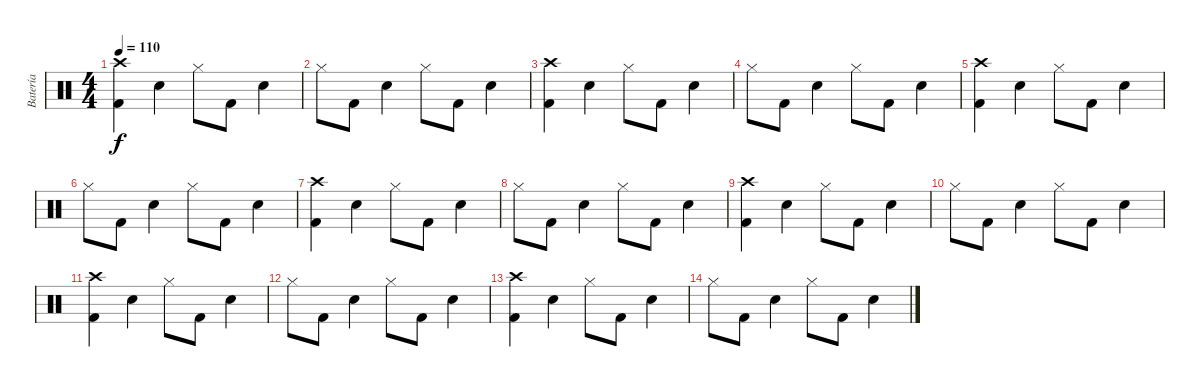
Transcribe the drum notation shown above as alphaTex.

\track ("Batería" "Batería") {instrument percussion}
\staff {score}
\articulation defaults
\ts (4 4)
\tempo 110
\clef neutral
\ks c
("Crash high (hit)" "Kick (hit) 2").4{dy f volume 11} "Electric Snare (hit)".4 "Hi-Hat (closed)".8 "Kick (hit) 2".8 "Electric Snare (hit)".4 |
"Hi-Hat (closed)".8 "Kick (hit) 2".8 "Electric Snare (hit)".4 "Hi-Hat (closed)".8 "Kick (hit) 2".8 "Electric Snare (hit)".4 |
("Crash high (hit)" "Kick (hit) 2").4{volume 11} "Electric Snare (hit)".4 "Hi-Hat (closed)".8 "Kick (hit) 2".8 "Electric Snare (hit)".4 |
"Hi-Hat (closed)".8 "Kick (hit) 2".8 "Electric Snare (hit)".4 "Hi-Hat (closed)".8 "Kick (hit) 2".8 "Electric Snare (hit)".4 |
("Crash high (hit)" "Kick (hit) 2").4{volume 11} "Electric Snare (hit)".4 "Hi-Hat (closed)".8 "Kick (hit) 2".8 "Electric Snare (hit)".4 |
"Hi-Hat (closed)".8 "Kick (hit) 2".8 "Electric Snare (hit)".4 "Hi-Hat (closed)".8 "Kick (hit) 2".8 "Electric Snare (hit)".4 |
("Crash high (hit)" "Kick (hit) 2").4{volume 11} "Electric Snare (hit)".4 "Hi-Hat (closed)".8 "Kick (hit) 2".8 "Electric Snare (hit)".4 |
"Hi-Hat (closed)".8 "Kick (hit) 2".8 "Electric Snare (hit)".4 "Hi-Hat (closed)".8 "Kick (hit) 2".8 "Electric Snare (hit)".4 |
("Crash high (hit)" "Kick (hit) 2").4{volume 11} "Electric Snare (hit)".4 "Hi-Hat (closed)".8 "Kick (hit) 2".8 "Electric Snare (hit)".4 |
"Hi-Hat (closed)".8 "Kick (hit) 2".8 "Electric Snare (hit)".4 "Hi-Hat (closed)".8 "Kick (hit) 2".8 "Electric Snare (hit)".4 |
("Crash high (hit)" "Kick (hit) 2").4{volume 11} "Electric Snare (hit)".4 "Hi-Hat (closed)".8 "Kick (hit) 2".8 "Electric Snare (hit)".4 |
"Hi-Hat (closed)".8 "Kick (hit) 2".8 "Electric Snare (hit)".4 "Hi-Hat (closed)".8 "Kick (hit) 2".8 "Electric Snare (hit)".4 |
("Crash high (hit)" "Kick (hit) 2").4{volume 11} "Electric Snare (hit)".4 "Hi-Hat (closed)".8 "Kick (hit) 2".8 "Electric Snare (hit)".4 |
"Hi-Hat (closed)".8 "Kick (hit) 2".8 "Electric Snare (hit)".4 "Hi-Hat (closed)".8 "Kick (hit) 2".8 "Electric Snare (hit)".4
